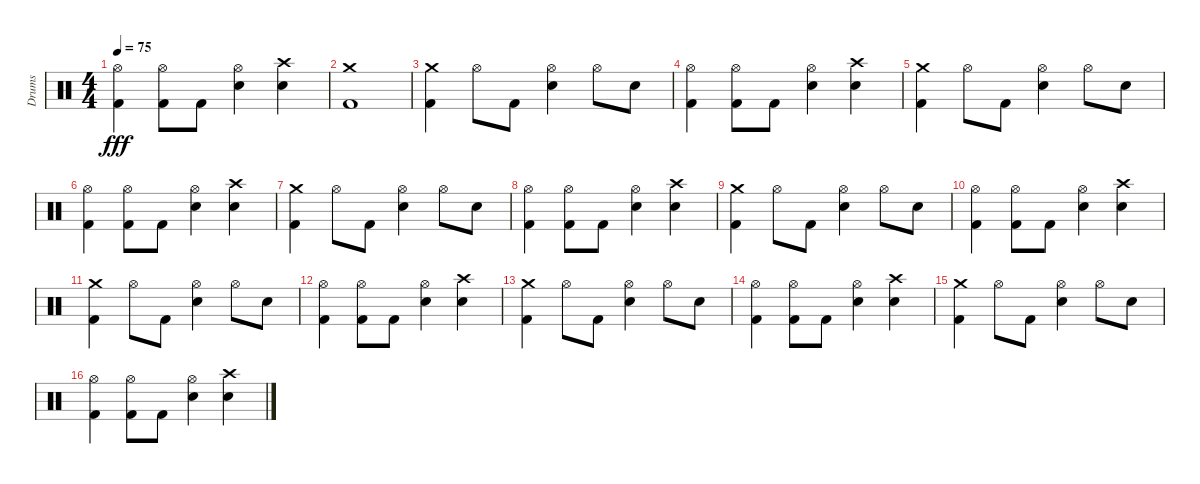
\track ("Drums" "Drums") {instrument percussion}
\staff {score}
\articulation defaults
\ts (4 4)
\tempo 75
\clef neutral
\ks c
("Hi-Hat (open)" "Kick (hit) 2").4{dy fff} ("Hi-Hat (open)" "Kick (hit) 2").8 "Kick (hit) 2".8 ("Hi-Hat (open)" "Snare (hit) 2").4 ("Crash high (hit)" "Snare (hit) 2").4 |
("Crash medium (hit)" "Kick (hit) 2").1 |
("Crash medium (hit)" "Kick (hit) 2").4 "Hi-Hat (open)".8 "Kick (hit) 2".8 ("Hi-Hat (open)" "Snare (hit) 2").4 "Hi-Hat (open)".8 "Snare (hit) 2".8 |
("Hi-Hat (open)" "Kick (hit) 2").4 ("Hi-Hat (open)" "Kick (hit) 2").8 "Kick (hit) 2".8 ("Hi-Hat (open)" "Snare (hit) 2").4 ("Crash high (hit)" "Snare (hit) 2").4 |
("Crash medium (hit)" "Kick (hit) 2").4 "Hi-Hat (open)".8 "Kick (hit) 2".8 ("Hi-Hat (open)" "Snare (hit) 2").4 "Hi-Hat (open)".8 "Snare (hit) 2".8 |
("Hi-Hat (open)" "Kick (hit) 2").4 ("Hi-Hat (open)" "Kick (hit) 2").8 "Kick (hit) 2".8 ("Hi-Hat (open)" "Snare (hit) 2").4 ("Crash high (hit)" "Snare (hit) 2").4 |
("Crash medium (hit)" "Kick (hit) 2").4 "Hi-Hat (open)".8 "Kick (hit) 2".8 ("Hi-Hat (open)" "Snare (hit) 2").4 "Hi-Hat (open)".8 "Snare (hit) 2".8 |
("Hi-Hat (open)" "Kick (hit) 2").4 ("Hi-Hat (open)" "Kick (hit) 2").8 "Kick (hit) 2".8 ("Hi-Hat (open)" "Snare (hit) 2").4 ("Crash high (hit)" "Snare (hit) 2").4 |
("Crash medium (hit)" "Kick (hit) 2").4 "Hi-Hat (open)".8 "Kick (hit) 2".8 ("Hi-Hat (open)" "Snare (hit) 2").4 "Hi-Hat (open)".8 "Snare (hit) 2".8 |
("Hi-Hat (open)" "Kick (hit) 2").4 ("Hi-Hat (open)" "Kick (hit) 2").8 "Kick (hit) 2".8 ("Hi-Hat (open)" "Snare (hit) 2").4 ("Crash high (hit)" "Snare (hit) 2").4 |
("Crash medium (hit)" "Kick (hit) 2").4 "Hi-Hat (open)".8 "Kick (hit) 2".8 ("Hi-Hat (open)" "Snare (hit) 2").4 "Hi-Hat (open)".8 "Snare (hit) 2".8 |
("Hi-Hat (open)" "Kick (hit) 2").4 ("Hi-Hat (open)" "Kick (hit) 2").8 "Kick (hit) 2".8 ("Hi-Hat (open)" "Snare (hit) 2").4 ("Crash high (hit)" "Snare (hit) 2").4 |
("Crash medium (hit)" "Kick (hit) 2").4 "Hi-Hat (open)".8 "Kick (hit) 2".8 ("Hi-Hat (open)" "Snare (hit) 2").4 "Hi-Hat (open)".8 "Snare (hit) 2".8 |
("Hi-Hat (open)" "Kick (hit) 2").4 ("Hi-Hat (open)" "Kick (hit) 2").8 "Kick (hit) 2".8 ("Hi-Hat (open)" "Snare (hit) 2").4 ("Crash high (hit)" "Snare (hit) 2").4 |
("Crash medium (hit)" "Kick (hit) 2").4 "Hi-Hat (open)".8 "Kick (hit) 2".8 ("Hi-Hat (open)" "Snare (hit) 2").4 "Hi-Hat (open)".8 "Snare (hit) 2".8 |
("Hi-Hat (open)" "Kick (hit) 2").4 ("Hi-Hat (open)" "Kick (hit) 2").8 "Kick (hit) 2".8 ("Hi-Hat (open)" "Snare (hit) 2").4 ("Crash high (hit)" "Snare (hit) 2").4
